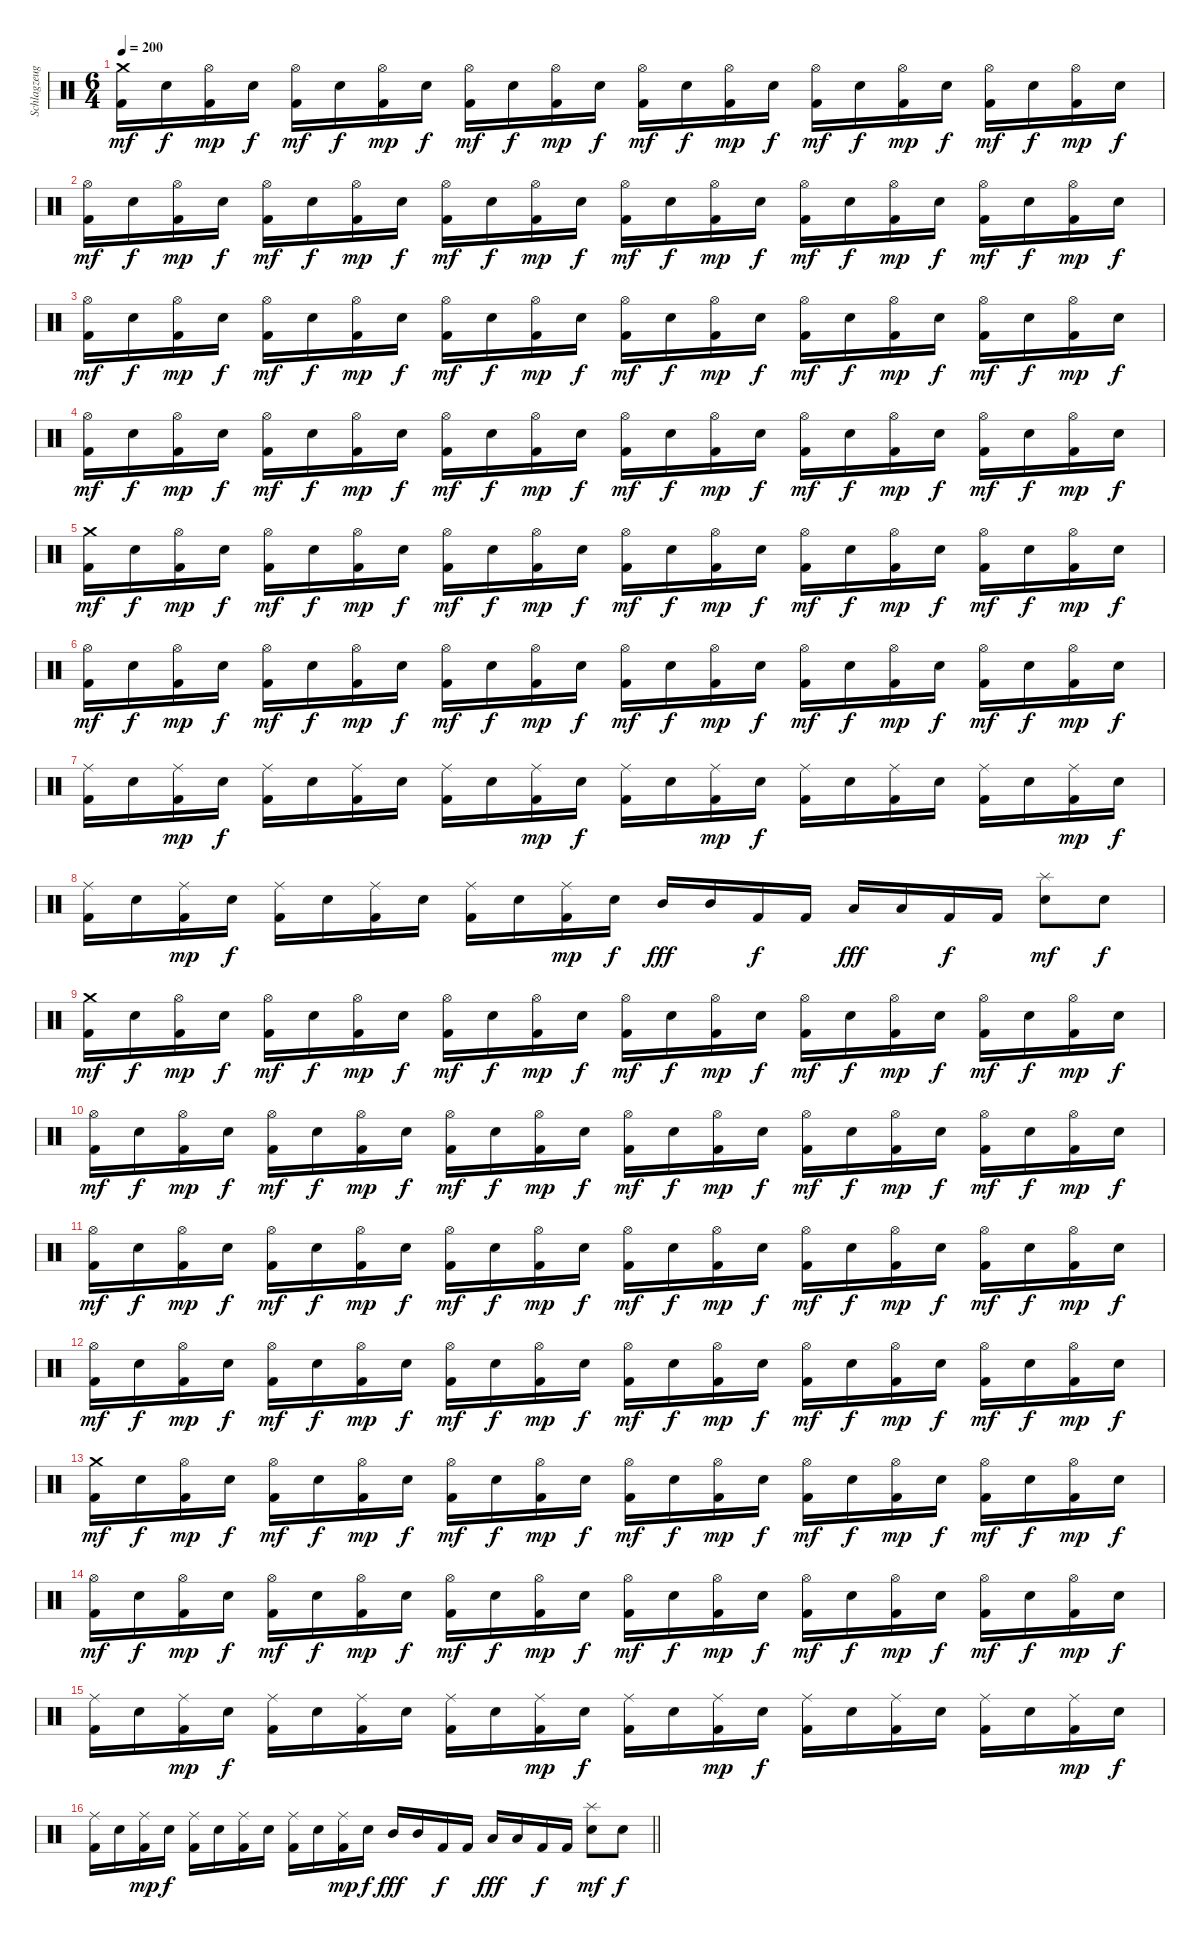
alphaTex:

\track ("Schlagzeug" "Schlagzeug") {instrument percussion}
\staff {score}
\articulation defaults
\ts (6 4)
\section ("" "")
\tempo 200
\clef neutral
\ks c
("Crash medium (hit)" "Kick (hit) 2").16{dy mf} "Electric Snare (hit)".16{dy f} ("Hi-Hat (open)" "Kick (hit) 2").16{dy mp} "Electric Snare (hit)".16{dy f} ("Hi-Hat (open)" "Kick (hit) 2").16{dy mf} "Electric Snare (hit)".16{dy f} ("Hi-Hat (open)" "Kick (hit) 2").16{dy mp} "Electric Snare (hit)".16{dy f} ("Hi-Hat (open)" "Kick (hit) 2").16{dy mf} "Electric Snare (hit)".16{dy f} ("Hi-Hat (open)" "Kick (hit) 2").16{dy mp} "Electric Snare (hit)".16{dy f} ("Hi-Hat (open)" "Kick (hit) 2").16{dy mf} "Electric Snare (hit)".16{dy f} ("Hi-Hat (open)" "Kick (hit) 2").16{dy mp} "Electric Snare (hit)".16{dy f} ("Hi-Hat (open)" "Kick (hit) 2").16{dy mf} "Electric Snare (hit)".16{dy f} ("Hi-Hat (open)" "Kick (hit) 2").16{dy mp} "Electric Snare (hit)".16{dy f} ("Hi-Hat (open)" "Kick (hit) 2").16{dy mf} "Electric Snare (hit)".16{dy f} ("Hi-Hat (open)" "Kick (hit) 2").16{dy mp} "Electric Snare (hit)".16{dy f} |
("Hi-Hat (open)" "Kick (hit) 2").16{dy mf} "Electric Snare (hit)".16{dy f} ("Hi-Hat (open)" "Kick (hit) 2").16{dy mp} "Electric Snare (hit)".16{dy f} ("Hi-Hat (open)" "Kick (hit) 2").16{dy mf} "Electric Snare (hit)".16{dy f} ("Hi-Hat (open)" "Kick (hit) 2").16{dy mp} "Electric Snare (hit)".16{dy f} ("Hi-Hat (open)" "Kick (hit) 2").16{dy mf} "Electric Snare (hit)".16{dy f} ("Hi-Hat (open)" "Kick (hit) 2").16{dy mp} "Electric Snare (hit)".16{dy f} ("Hi-Hat (open)" "Kick (hit) 2").16{dy mf} "Electric Snare (hit)".16{dy f} ("Hi-Hat (open)" "Kick (hit) 2").16{dy mp} "Electric Snare (hit)".16{dy f} ("Hi-Hat (open)" "Kick (hit) 2").16{dy mf} "Electric Snare (hit)".16{dy f} ("Hi-Hat (open)" "Kick (hit) 2").16{dy mp} "Electric Snare (hit)".16{dy f} ("Hi-Hat (open)" "Kick (hit) 2").16{dy mf} "Electric Snare (hit)".16{dy f} ("Hi-Hat (open)" "Kick (hit) 2").16{dy mp} "Electric Snare (hit)".16{dy f} |
("Hi-Hat (open)" "Kick (hit) 2").16{dy mf} "Electric Snare (hit)".16{dy f} ("Hi-Hat (open)" "Kick (hit) 2").16{dy mp} "Electric Snare (hit)".16{dy f} ("Hi-Hat (open)" "Kick (hit) 2").16{dy mf} "Electric Snare (hit)".16{dy f} ("Hi-Hat (open)" "Kick (hit) 2").16{dy mp} "Electric Snare (hit)".16{dy f} ("Hi-Hat (open)" "Kick (hit) 2").16{dy mf} "Electric Snare (hit)".16{dy f} ("Hi-Hat (open)" "Kick (hit) 2").16{dy mp} "Electric Snare (hit)".16{dy f} ("Hi-Hat (open)" "Kick (hit) 2").16{dy mf} "Electric Snare (hit)".16{dy f} ("Hi-Hat (open)" "Kick (hit) 2").16{dy mp} "Electric Snare (hit)".16{dy f} ("Hi-Hat (open)" "Kick (hit) 2").16{dy mf} "Electric Snare (hit)".16{dy f} ("Hi-Hat (open)" "Kick (hit) 2").16{dy mp} "Electric Snare (hit)".16{dy f} ("Hi-Hat (open)" "Kick (hit) 2").16{dy mf} "Electric Snare (hit)".16{dy f} ("Hi-Hat (open)" "Kick (hit) 2").16{dy mp} "Electric Snare (hit)".16{dy f} |
("Hi-Hat (open)" "Kick (hit) 2").16{dy mf} "Electric Snare (hit)".16{dy f} ("Hi-Hat (open)" "Kick (hit) 2").16{dy mp} "Electric Snare (hit)".16{dy f} ("Hi-Hat (open)" "Kick (hit) 2").16{dy mf} "Electric Snare (hit)".16{dy f} ("Hi-Hat (open)" "Kick (hit) 2").16{dy mp} "Electric Snare (hit)".16{dy f} ("Hi-Hat (open)" "Kick (hit) 2").16{dy mf} "Electric Snare (hit)".16{dy f} ("Hi-Hat (open)" "Kick (hit) 2").16{dy mp} "Electric Snare (hit)".16{dy f} ("Hi-Hat (open)" "Kick (hit) 2").16{dy mf} "Electric Snare (hit)".16{dy f} ("Hi-Hat (open)" "Kick (hit) 2").16{dy mp} "Electric Snare (hit)".16{dy f} ("Hi-Hat (open)" "Kick (hit) 2").16{dy mf} "Electric Snare (hit)".16{dy f} ("Hi-Hat (open)" "Kick (hit) 2").16{dy mp} "Electric Snare (hit)".16{dy f} ("Hi-Hat (open)" "Kick (hit) 2").16{dy mf} "Electric Snare (hit)".16{dy f} ("Hi-Hat (open)" "Kick (hit) 2").16{dy mp} "Electric Snare (hit)".16{dy f} |
("Crash medium (hit)" "Kick (hit) 2").16{dy mf} "Electric Snare (hit)".16{dy f} ("Hi-Hat (open)" "Kick (hit) 2").16{dy mp} "Electric Snare (hit)".16{dy f} ("Hi-Hat (open)" "Kick (hit) 2").16{dy mf} "Electric Snare (hit)".16{dy f} ("Hi-Hat (open)" "Kick (hit) 2").16{dy mp} "Electric Snare (hit)".16{dy f} ("Hi-Hat (open)" "Kick (hit) 2").16{dy mf} "Electric Snare (hit)".16{dy f} ("Hi-Hat (open)" "Kick (hit) 2").16{dy mp} "Electric Snare (hit)".16{dy f} ("Hi-Hat (open)" "Kick (hit) 2").16{dy mf} "Electric Snare (hit)".16{dy f} ("Hi-Hat (open)" "Kick (hit) 2").16{dy mp} "Electric Snare (hit)".16{dy f} ("Hi-Hat (open)" "Kick (hit) 2").16{dy mf} "Electric Snare (hit)".16{dy f} ("Hi-Hat (open)" "Kick (hit) 2").16{dy mp} "Electric Snare (hit)".16{dy f} ("Hi-Hat (open)" "Kick (hit) 2").16{dy mf} "Electric Snare (hit)".16{dy f} ("Hi-Hat (open)" "Kick (hit) 2").16{dy mp} "Electric Snare (hit)".16{dy f} |
("Hi-Hat (open)" "Kick (hit) 2").16{dy mf} "Electric Snare (hit)".16{dy f} ("Hi-Hat (open)" "Kick (hit) 2").16{dy mp} "Electric Snare (hit)".16{dy f} ("Hi-Hat (open)" "Kick (hit) 2").16{dy mf} "Electric Snare (hit)".16{dy f} ("Hi-Hat (open)" "Kick (hit) 2").16{dy mp} "Electric Snare (hit)".16{dy f} ("Hi-Hat (open)" "Kick (hit) 2").16{dy mf} "Electric Snare (hit)".16{dy f} ("Hi-Hat (open)" "Kick (hit) 2").16{dy mp} "Electric Snare (hit)".16{dy f} ("Hi-Hat (open)" "Kick (hit) 2").16{dy mf} "Electric Snare (hit)".16{dy f} ("Hi-Hat (open)" "Kick (hit) 2").16{dy mp} "Electric Snare (hit)".16{dy f} ("Hi-Hat (open)" "Kick (hit) 2").16{dy mf} "Electric Snare (hit)".16{dy f} ("Hi-Hat (open)" "Kick (hit) 2").16{dy mp} "Electric Snare (hit)".16{dy f} ("Hi-Hat (open)" "Kick (hit) 2").16{dy mf} "Electric Snare (hit)".16{dy f} ("Hi-Hat (open)" "Kick (hit) 2").16{dy mp} "Electric Snare (hit)".16{dy f} |
("Ride (middle)" "Kick (hit) 2").16 "Electric Snare (hit)".16 ("Ride (middle)" "Kick (hit) 2").16{dy mp} "Electric Snare (hit)".16{dy f} ("Ride (middle)" "Kick (hit) 2").16 "Electric Snare (hit)".16 ("Ride (middle)" "Kick (hit) 2").16 "Electric Snare (hit)".16 ("Ride (middle)" "Kick (hit) 2").16 "Electric Snare (hit)".16 ("Ride (middle)" "Kick (hit) 2").16{dy mp} "Electric Snare (hit)".16{dy f} ("Ride (middle)" "Kick (hit) 2").16 "Electric Snare (hit)".16 ("Ride (middle)" "Kick (hit) 2").16{dy mp} "Electric Snare (hit)".16{dy f} ("Ride (middle)" "Kick (hit) 2").16 "Electric Snare (hit)".16 ("Ride (middle)" "Kick (hit) 2").16 "Electric Snare (hit)".16 ("Ride (middle)" "Kick (hit) 2").16 "Electric Snare (hit)".16 ("Ride (middle)" "Kick (hit) 2").16{dy mp} "Electric Snare (hit)".16{dy f} |
("Ride (middle)" "Kick (hit) 2").16 "Electric Snare (hit)".16 ("Ride (middle)" "Kick (hit) 2").16{dy mp} "Electric Snare (hit)".16{dy f} ("Ride (middle)" "Kick (hit) 2").16 "Electric Snare (hit)".16 ("Ride (middle)" "Kick (hit) 2").16 "Electric Snare (hit)".16 ("Ride (middle)" "Kick (hit) 2").16 "Electric Snare (hit)".16 ("Ride (middle)" "Kick (hit) 2").16{dy mp} "Electric Snare (hit)".16{dy f} "Mid Tom (hit)".16{dy fff} "Mid Tom (hit)".16 "Kick (hit) 2".16{dy f} "Kick (hit) 2".16 "Low Tom (hit)".16{dy fff} "Low Tom (hit)".16 "Kick (hit) 2".16{dy f} "Kick (hit) 2".16 ("Splash (hit)" "Electric Snare (hit)").8{dy mf} "Electric Snare (hit)".8{dy f} |
("Crash medium (hit)" "Kick (hit) 2").16{dy mf} "Electric Snare (hit)".16{dy f} ("Hi-Hat (open)" "Kick (hit) 2").16{dy mp} "Electric Snare (hit)".16{dy f} ("Hi-Hat (open)" "Kick (hit) 2").16{dy mf} "Electric Snare (hit)".16{dy f} ("Hi-Hat (open)" "Kick (hit) 2").16{dy mp} "Electric Snare (hit)".16{dy f} ("Hi-Hat (open)" "Kick (hit) 2").16{dy mf} "Electric Snare (hit)".16{dy f} ("Hi-Hat (open)" "Kick (hit) 2").16{dy mp} "Electric Snare (hit)".16{dy f} ("Hi-Hat (open)" "Kick (hit) 2").16{dy mf} "Electric Snare (hit)".16{dy f} ("Hi-Hat (open)" "Kick (hit) 2").16{dy mp} "Electric Snare (hit)".16{dy f} ("Hi-Hat (open)" "Kick (hit) 2").16{dy mf} "Electric Snare (hit)".16{dy f} ("Hi-Hat (open)" "Kick (hit) 2").16{dy mp} "Electric Snare (hit)".16{dy f} ("Hi-Hat (open)" "Kick (hit) 2").16{dy mf} "Electric Snare (hit)".16{dy f} ("Hi-Hat (open)" "Kick (hit) 2").16{dy mp} "Electric Snare (hit)".16{dy f} |
("Hi-Hat (open)" "Kick (hit) 2").16{dy mf} "Electric Snare (hit)".16{dy f} ("Hi-Hat (open)" "Kick (hit) 2").16{dy mp} "Electric Snare (hit)".16{dy f} ("Hi-Hat (open)" "Kick (hit) 2").16{dy mf} "Electric Snare (hit)".16{dy f} ("Hi-Hat (open)" "Kick (hit) 2").16{dy mp} "Electric Snare (hit)".16{dy f} ("Hi-Hat (open)" "Kick (hit) 2").16{dy mf} "Electric Snare (hit)".16{dy f} ("Hi-Hat (open)" "Kick (hit) 2").16{dy mp} "Electric Snare (hit)".16{dy f} ("Hi-Hat (open)" "Kick (hit) 2").16{dy mf} "Electric Snare (hit)".16{dy f} ("Hi-Hat (open)" "Kick (hit) 2").16{dy mp} "Electric Snare (hit)".16{dy f} ("Hi-Hat (open)" "Kick (hit) 2").16{dy mf} "Electric Snare (hit)".16{dy f} ("Hi-Hat (open)" "Kick (hit) 2").16{dy mp} "Electric Snare (hit)".16{dy f} ("Hi-Hat (open)" "Kick (hit) 2").16{dy mf} "Electric Snare (hit)".16{dy f} ("Hi-Hat (open)" "Kick (hit) 2").16{dy mp} "Electric Snare (hit)".16{dy f} |
("Hi-Hat (open)" "Kick (hit) 2").16{dy mf} "Electric Snare (hit)".16{dy f} ("Hi-Hat (open)" "Kick (hit) 2").16{dy mp} "Electric Snare (hit)".16{dy f} ("Hi-Hat (open)" "Kick (hit) 2").16{dy mf} "Electric Snare (hit)".16{dy f} ("Hi-Hat (open)" "Kick (hit) 2").16{dy mp} "Electric Snare (hit)".16{dy f} ("Hi-Hat (open)" "Kick (hit) 2").16{dy mf} "Electric Snare (hit)".16{dy f} ("Hi-Hat (open)" "Kick (hit) 2").16{dy mp} "Electric Snare (hit)".16{dy f} ("Hi-Hat (open)" "Kick (hit) 2").16{dy mf} "Electric Snare (hit)".16{dy f} ("Hi-Hat (open)" "Kick (hit) 2").16{dy mp} "Electric Snare (hit)".16{dy f} ("Hi-Hat (open)" "Kick (hit) 2").16{dy mf} "Electric Snare (hit)".16{dy f} ("Hi-Hat (open)" "Kick (hit) 2").16{dy mp} "Electric Snare (hit)".16{dy f} ("Hi-Hat (open)" "Kick (hit) 2").16{dy mf} "Electric Snare (hit)".16{dy f} ("Hi-Hat (open)" "Kick (hit) 2").16{dy mp} "Electric Snare (hit)".16{dy f} |
("Hi-Hat (open)" "Kick (hit) 2").16{dy mf} "Electric Snare (hit)".16{dy f} ("Hi-Hat (open)" "Kick (hit) 2").16{dy mp} "Electric Snare (hit)".16{dy f} ("Hi-Hat (open)" "Kick (hit) 2").16{dy mf} "Electric Snare (hit)".16{dy f} ("Hi-Hat (open)" "Kick (hit) 2").16{dy mp} "Electric Snare (hit)".16{dy f} ("Hi-Hat (open)" "Kick (hit) 2").16{dy mf} "Electric Snare (hit)".16{dy f} ("Hi-Hat (open)" "Kick (hit) 2").16{dy mp} "Electric Snare (hit)".16{dy f} ("Hi-Hat (open)" "Kick (hit) 2").16{dy mf} "Electric Snare (hit)".16{dy f} ("Hi-Hat (open)" "Kick (hit) 2").16{dy mp} "Electric Snare (hit)".16{dy f} ("Hi-Hat (open)" "Kick (hit) 2").16{dy mf} "Electric Snare (hit)".16{dy f} ("Hi-Hat (open)" "Kick (hit) 2").16{dy mp} "Electric Snare (hit)".16{dy f} ("Hi-Hat (open)" "Kick (hit) 2").16{dy mf} "Electric Snare (hit)".16{dy f} ("Hi-Hat (open)" "Kick (hit) 2").16{dy mp} "Electric Snare (hit)".16{dy f} |
("Crash medium (hit)" "Kick (hit) 2").16{dy mf} "Electric Snare (hit)".16{dy f} ("Hi-Hat (open)" "Kick (hit) 2").16{dy mp} "Electric Snare (hit)".16{dy f} ("Hi-Hat (open)" "Kick (hit) 2").16{dy mf} "Electric Snare (hit)".16{dy f} ("Hi-Hat (open)" "Kick (hit) 2").16{dy mp} "Electric Snare (hit)".16{dy f} ("Hi-Hat (open)" "Kick (hit) 2").16{dy mf} "Electric Snare (hit)".16{dy f} ("Hi-Hat (open)" "Kick (hit) 2").16{dy mp} "Electric Snare (hit)".16{dy f} ("Hi-Hat (open)" "Kick (hit) 2").16{dy mf} "Electric Snare (hit)".16{dy f} ("Hi-Hat (open)" "Kick (hit) 2").16{dy mp} "Electric Snare (hit)".16{dy f} ("Hi-Hat (open)" "Kick (hit) 2").16{dy mf} "Electric Snare (hit)".16{dy f} ("Hi-Hat (open)" "Kick (hit) 2").16{dy mp} "Electric Snare (hit)".16{dy f} ("Hi-Hat (open)" "Kick (hit) 2").16{dy mf} "Electric Snare (hit)".16{dy f} ("Hi-Hat (open)" "Kick (hit) 2").16{dy mp} "Electric Snare (hit)".16{dy f} |
("Hi-Hat (open)" "Kick (hit) 2").16{dy mf} "Electric Snare (hit)".16{dy f} ("Hi-Hat (open)" "Kick (hit) 2").16{dy mp} "Electric Snare (hit)".16{dy f} ("Hi-Hat (open)" "Kick (hit) 2").16{dy mf} "Electric Snare (hit)".16{dy f} ("Hi-Hat (open)" "Kick (hit) 2").16{dy mp} "Electric Snare (hit)".16{dy f} ("Hi-Hat (open)" "Kick (hit) 2").16{dy mf} "Electric Snare (hit)".16{dy f} ("Hi-Hat (open)" "Kick (hit) 2").16{dy mp} "Electric Snare (hit)".16{dy f} ("Hi-Hat (open)" "Kick (hit) 2").16{dy mf} "Electric Snare (hit)".16{dy f} ("Hi-Hat (open)" "Kick (hit) 2").16{dy mp} "Electric Snare (hit)".16{dy f} ("Hi-Hat (open)" "Kick (hit) 2").16{dy mf} "Electric Snare (hit)".16{dy f} ("Hi-Hat (open)" "Kick (hit) 2").16{dy mp} "Electric Snare (hit)".16{dy f} ("Hi-Hat (open)" "Kick (hit) 2").16{dy mf} "Electric Snare (hit)".16{dy f} ("Hi-Hat (open)" "Kick (hit) 2").16{dy mp} "Electric Snare (hit)".16{dy f} |
("Ride (middle)" "Kick (hit) 2").16 "Electric Snare (hit)".16 ("Ride (middle)" "Kick (hit) 2").16{dy mp} "Electric Snare (hit)".16{dy f} ("Ride (middle)" "Kick (hit) 2").16 "Electric Snare (hit)".16 ("Ride (middle)" "Kick (hit) 2").16 "Electric Snare (hit)".16 ("Ride (middle)" "Kick (hit) 2").16 "Electric Snare (hit)".16 ("Ride (middle)" "Kick (hit) 2").16{dy mp} "Electric Snare (hit)".16{dy f} ("Ride (middle)" "Kick (hit) 2").16 "Electric Snare (hit)".16 ("Ride (middle)" "Kick (hit) 2").16{dy mp} "Electric Snare (hit)".16{dy f} ("Ride (middle)" "Kick (hit) 2").16 "Electric Snare (hit)".16 ("Ride (middle)" "Kick (hit) 2").16 "Electric Snare (hit)".16 ("Ride (middle)" "Kick (hit) 2").16 "Electric Snare (hit)".16 ("Ride (middle)" "Kick (hit) 2").16{dy mp} "Electric Snare (hit)".16{dy f} |
\barLineRight lightlight
("Ride (middle)" "Kick (hit) 2").16 "Electric Snare (hit)".16 ("Ride (middle)" "Kick (hit) 2").16{dy mp} "Electric Snare (hit)".16{dy f} ("Ride (middle)" "Kick (hit) 2").16 "Electric Snare (hit)".16 ("Ride (middle)" "Kick (hit) 2").16 "Electric Snare (hit)".16 ("Ride (middle)" "Kick (hit) 2").16 "Electric Snare (hit)".16 ("Ride (middle)" "Kick (hit) 2").16{dy mp} "Electric Snare (hit)".16{dy f} "Mid Tom (hit)".16{dy fff} "Mid Tom (hit)".16 "Kick (hit) 2".16{dy f} "Kick (hit) 2".16 "Low Tom (hit)".16{dy fff} "Low Tom (hit)".16 "Kick (hit) 2".16{dy f} "Kick (hit) 2".16 ("Splash (hit)" "Electric Snare (hit)").8{dy mf} "Electric Snare (hit)".8{dy f}
